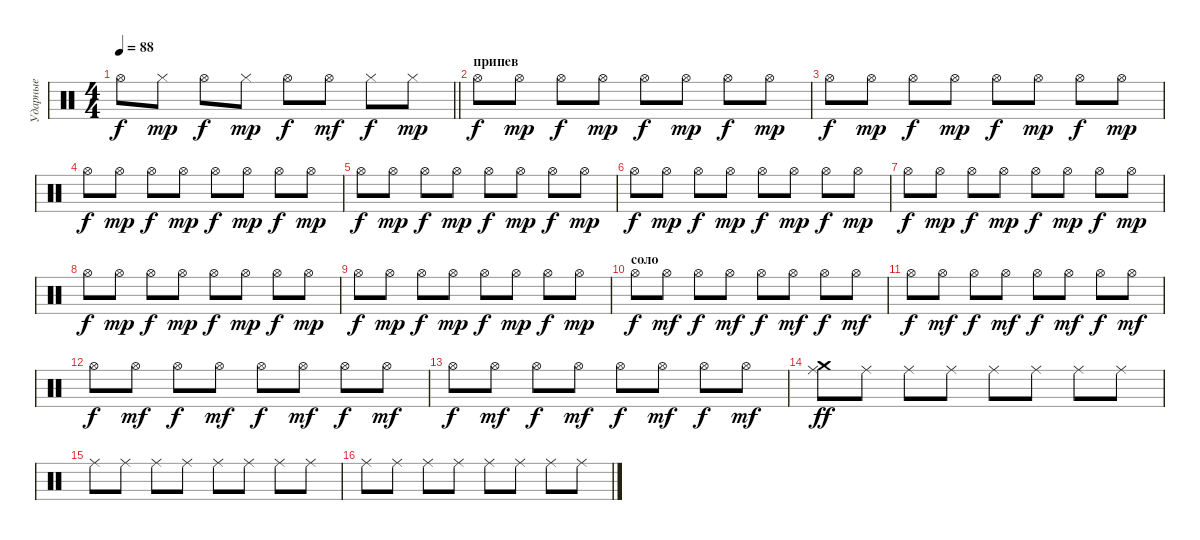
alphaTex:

\track ("Ударные" "Ударные") {instrument percussion}
\staff {score}
\articulation defaults
\ts (4 4)
\tempo 88
\clef neutral
\barLineRight lightlight
\ks c "Hi-Hat (open)".8{dy f} "Hi-Hat (closed)".8{dy mp} "Hi-Hat (open)".8{dy f} "Hi-Hat (closed)".8{dy mp} "Hi-Hat (open)".8{dy f} "Hi-Hat (open)".8{dy mf} "Hi-Hat (closed)".8{dy f} "Hi-Hat (closed)".8{dy mp}
|
\section ("" "припев")
"Hi-Hat (open)".8{dy f} "Hi-Hat (open)".8{dy mp} "Hi-Hat (open)".8{dy f} "Hi-Hat (open)".8{dy mp} "Hi-Hat (open)".8{dy f} "Hi-Hat (open)".8{dy mp} "Hi-Hat (open)".8{dy f} "Hi-Hat (open)".8{dy mp} |
"Hi-Hat (open)".8{dy f} "Hi-Hat (open)".8{dy mp} "Hi-Hat (open)".8{dy f} "Hi-Hat (open)".8{dy mp} "Hi-Hat (open)".8{dy f} "Hi-Hat (open)".8{dy mp} "Hi-Hat (open)".8{dy f} "Hi-Hat (open)".8{dy mp} |
"Hi-Hat (open)".8{dy f} "Hi-Hat (open)".8{dy mp} "Hi-Hat (open)".8{dy f} "Hi-Hat (open)".8{dy mp} "Hi-Hat (open)".8{dy f} "Hi-Hat (open)".8{dy mp} "Hi-Hat (open)".8{dy f} "Hi-Hat (open)".8{dy mp} |
"Hi-Hat (open)".8{dy f} "Hi-Hat (open)".8{dy mp} "Hi-Hat (open)".8{dy f} "Hi-Hat (open)".8{dy mp} "Hi-Hat (open)".8{dy f} "Hi-Hat (open)".8{dy mp} "Hi-Hat (open)".8{dy f} "Hi-Hat (open)".8{dy mp} |
"Hi-Hat (open)".8{dy f} "Hi-Hat (open)".8{dy mp} "Hi-Hat (open)".8{dy f} "Hi-Hat (open)".8{dy mp} "Hi-Hat (open)".8{dy f} "Hi-Hat (open)".8{dy mp} "Hi-Hat (open)".8{dy f} "Hi-Hat (open)".8{dy mp} |
"Hi-Hat (open)".8{dy f} "Hi-Hat (open)".8{dy mp} "Hi-Hat (open)".8{dy f} "Hi-Hat (open)".8{dy mp} "Hi-Hat (open)".8{dy f} "Hi-Hat (open)".8{dy mp} "Hi-Hat (open)".8{dy f} "Hi-Hat (open)".8{dy mp} |
"Hi-Hat (open)".8{dy f} "Hi-Hat (open)".8{dy mp} "Hi-Hat (open)".8{dy f} "Hi-Hat (open)".8{dy mp} "Hi-Hat (open)".8{dy f} "Hi-Hat (open)".8{dy mp} "Hi-Hat (open)".8{dy f} "Hi-Hat (open)".8{dy mp} |
"Hi-Hat (open)".8{dy f} "Hi-Hat (open)".8{dy mp} "Hi-Hat (open)".8{dy f} "Hi-Hat (open)".8{dy mp} "Hi-Hat (open)".8{dy f} "Hi-Hat (open)".8{dy mp} "Hi-Hat (open)".8{dy f} "Hi-Hat (open)".8{dy mp} |
\section ("" "соло")
"Hi-Hat (open)".8{dy f} "Hi-Hat (open)".8{dy mf} "Hi-Hat (open)".8{dy f} "Hi-Hat (open)".8{dy mf} "Hi-Hat (open)".8{dy f} "Hi-Hat (open)".8{dy mf} "Hi-Hat (open)".8{dy f} "Hi-Hat (open)".8{dy mf} |
"Hi-Hat (open)".8{dy f} "Hi-Hat (open)".8{dy mf} "Hi-Hat (open)".8{dy f} "Hi-Hat (open)".8{dy mf} "Hi-Hat (open)".8{dy f} "Hi-Hat (open)".8{dy mf} "Hi-Hat (open)".8{dy f} "Hi-Hat (open)".8{dy mf} |
"Hi-Hat (open)".8{dy f} "Hi-Hat (open)".8{dy mf} "Hi-Hat (open)".8{dy f} "Hi-Hat (open)".8{dy mf} "Hi-Hat (open)".8{dy f} "Hi-Hat (open)".8{dy mf} "Hi-Hat (open)".8{dy f} "Hi-Hat (open)".8{dy mf} |
"Hi-Hat (open)".8{dy f} "Hi-Hat (open)".8{dy mf} "Hi-Hat (open)".8{dy f} "Hi-Hat (open)".8{dy mf} "Hi-Hat (open)".8{dy f} "Hi-Hat (open)".8{dy mf} "Hi-Hat (open)".8{dy f} "Hi-Hat (open)".8{dy mf} |
("Crash medium (hit)" "Ride (middle)").8{dy ff} "Ride (middle)".8 "Ride (middle)".8 "Ride (middle)".8 "Ride (middle)".8 "Ride (middle)".8 "Ride (middle)".8 "Ride (middle)".8 |
"Ride (middle)".8 "Ride (middle)".8 "Ride (middle)".8 "Ride (middle)".8 "Ride (middle)".8 "Ride (middle)".8 "Ride (middle)".8 "Ride (middle)".8 |
"Ride (middle)".8 "Ride (middle)".8 "Ride (middle)".8 "Ride (middle)".8 "Ride (middle)".8 "Ride (middle)".8 "Ride (middle)".8 "Ride (middle)".8
